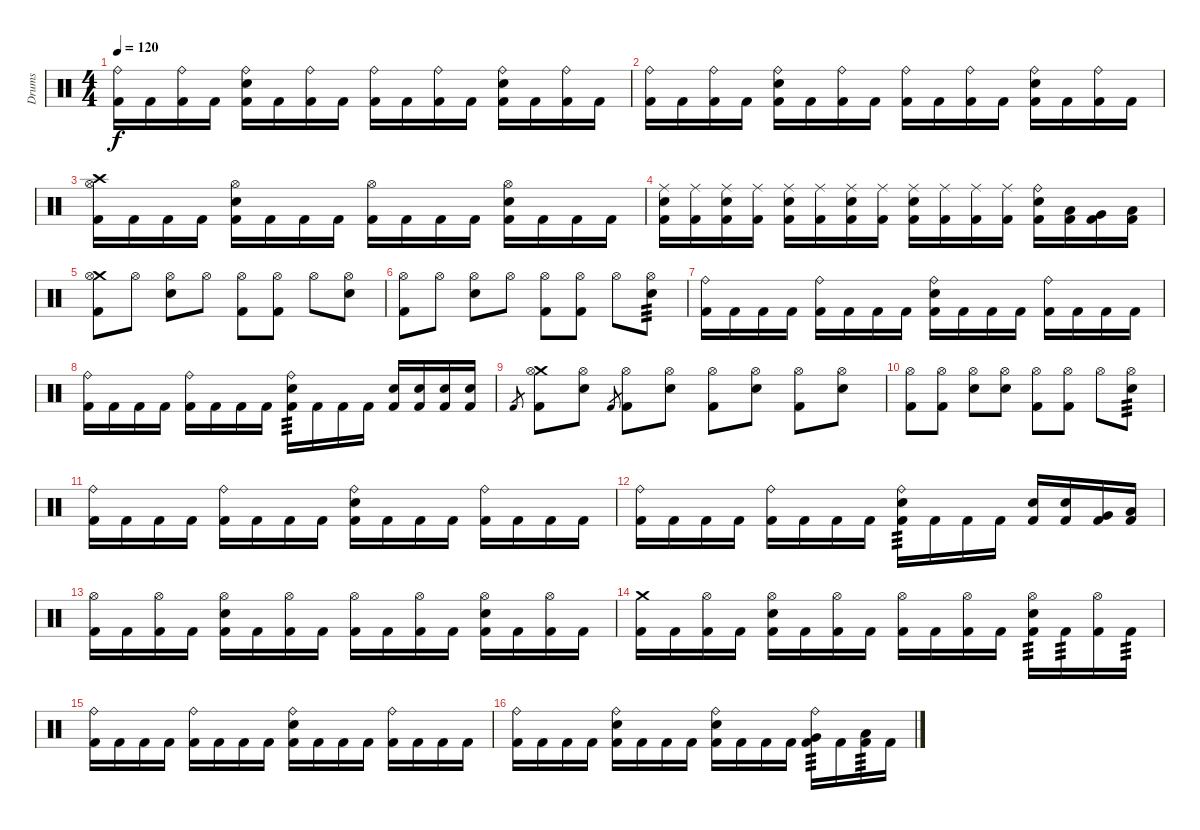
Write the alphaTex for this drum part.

\track ("Drums" "Drums") {instrument percussion}
\staff {score}
\articulation defaults
\ts (4 4)
\tempo 120
\clef neutral
\ks c
("Ride (bell)" "Kick (hit) 2").16{dy f} "Kick (hit) 2".16 ("Ride (bell)" "Kick (hit) 2").16 "Kick (hit) 2".16 ("Electric Snare (hit)" "Ride (bell)" "Kick (hit) 2").16 "Kick (hit) 2".16 ("Ride (bell)" "Kick (hit) 2").16 "Kick (hit) 2".16 ("Ride (bell)" "Kick (hit) 2").16 "Kick (hit) 2".16 ("Ride (bell)" "Kick (hit) 2").16 "Kick (hit) 2".16 ("Electric Snare (hit)" "Ride (bell)" "Kick (hit) 2").16 "Kick (hit) 2".16 ("Ride (bell)" "Kick (hit) 2").16 "Kick (hit) 2".16 |
("Ride (bell)" "Kick (hit) 2").16 "Kick (hit) 2".16 ("Ride (bell)" "Kick (hit) 2").16 "Kick (hit) 2".16 ("Electric Snare (hit)" "Ride (bell)" "Kick (hit) 2").16 "Kick (hit) 2".16 ("Ride (bell)" "Kick (hit) 2").16 "Kick (hit) 2".16 ("Ride (bell)" "Kick (hit) 2").16 "Kick (hit) 2".16 ("Ride (bell)" "Kick (hit) 2").16 "Kick (hit) 2".16 ("Electric Snare (hit)" "Ride (bell)" "Kick (hit) 2").16 "Kick (hit) 2".16 ("Ride (bell)" "Kick (hit) 2").16 "Kick (hit) 2".16 |
("Crash high (hit)" "Hi-Hat (open)" "Kick (hit) 2").16 "Kick (hit) 2".16 "Kick (hit) 2".16 "Kick (hit) 2".16 ("Electric Snare (hit)" "Hi-Hat (open)" "Kick (hit) 2").16 "Kick (hit) 2".16 "Kick (hit) 2".16 "Kick (hit) 2".16 ("Hi-Hat (open)" "Kick (hit) 2").16 "Kick (hit) 2".16 "Kick (hit) 2".16 "Kick (hit) 2".16 ("Hi-Hat (open)" "Electric Snare (hit)" "Kick (hit) 2").16 "Kick (hit) 2".16 "Kick (hit) 2".16 "Kick (hit) 2".16 |
("Electric Snare (hit)" "Ride (middle)" "Kick (hit) 2").16 ("Ride (middle)" "Kick (hit) 2").16 ("Electric Snare (hit)" "Ride (middle)" "Kick (hit) 2").16 ("Ride (middle)" "Kick (hit) 2").16 ("Electric Snare (hit)" "Ride (middle)" "Kick (hit) 2").16 ("Ride (middle)" "Kick (hit) 2").16 ("Electric Snare (hit)" "Ride (middle)" "Kick (hit) 2").16 ("Ride (middle)" "Kick (hit) 2").16 ("Electric Snare (hit)" "Ride (middle)" "Kick (hit) 2").16 ("Ride (middle)" "Kick (hit) 2").16 ("Ride (middle)" "Kick (hit) 2").16 ("Ride (middle)" "Kick (hit) 2").16 ("Ride (bell)" "Electric Snare (hit)" "Kick (hit) 2").16 ("Low Tom (hit)" "Kick (hit) 2").16 ("Very Low Tom (hit)" "Kick (hit) 2").16 ("Low Floor Tom (hit)" "Kick (hit) 2").16 |
("Crash medium (hit)" "Hi-Hat (open)" "Kick (hit) 2").8 "Hi-Hat (open)".8 ("Hi-Hat (open)" "Electric Snare (hit)").8 "Hi-Hat (open)".8 ("Hi-Hat (open)" "Kick (hit) 2").8 ("Hi-Hat (open)" "Kick (hit) 2").8 "Hi-Hat (open)".8 ("Hi-Hat (open)" "Electric Snare (hit)").8 |
("Hi-Hat (open)" "Kick (hit) 2").8 "Hi-Hat (open)".8 ("Hi-Hat (open)" "Electric Snare (hit)").8 "Hi-Hat (open)".8 ("Hi-Hat (open)" "Kick (hit) 2").8 ("Hi-Hat (open)" "Kick (hit) 2").8 "Hi-Hat (open)".8 ("Hi-Hat (open)" "Electric Snare (hit)").8{tp 3} |
("Ride (bell)" "Kick (hit) 2").16 "Kick (hit) 2".16 "Kick (hit) 2".16 "Kick (hit) 2".16 ("Ride (bell)" "Kick (hit) 2").16 "Kick (hit) 2".16 "Kick (hit) 2".16 "Kick (hit) 2".16 ("Ride (bell)" "Electric Snare (hit)" "Kick (hit) 2").16 "Kick (hit) 2".16 "Kick (hit) 2".16 "Kick (hit) 2".16 ("Ride (bell)" "Kick (hit) 2").16 "Kick (hit) 2".16 "Kick (hit) 2".16 "Kick (hit) 2".16 |
("Ride (bell)" "Kick (hit) 2").16 "Kick (hit) 2".16 "Kick (hit) 2".16 "Kick (hit) 2".16 ("Ride (bell)" "Kick (hit) 2").16 "Kick (hit) 2".16 "Kick (hit) 2".16 "Kick (hit) 2".16 ("Ride (bell)" "Electric Snare (hit)" "Kick (hit) 2").16{tp 3} "Kick (hit) 2".16 "Kick (hit) 2".16 "Kick (hit) 2".16 ("Electric Snare (hit)" "Kick (hit) 2").16 ("Electric Snare (hit)" "Kick (hit) 2").16 ("Electric Snare (hit)" "Kick (hit) 2").16 ("Electric Snare (hit)" "Kick (hit) 2").16 |
"Kick (hit) 2".8{gr} ("Crash medium (hit)" "Hi-Hat (open)" "Kick (hit) 2").8 ("Hi-Hat (open)" "Electric Snare (hit)").8 "Kick (hit) 2".8{gr} ("Hi-Hat (open)" "Kick (hit) 2").8 ("Hi-Hat (open)" "Electric Snare (hit)").8 ("Hi-Hat (open)" "Kick (hit) 2").8 ("Hi-Hat (open)" "Electric Snare (hit)").8 ("Hi-Hat (open)" "Kick (hit) 2").8 ("Hi-Hat (open)" "Electric Snare (hit)").8 |
("Hi-Hat (open)" "Kick (hit) 2").8 ("Hi-Hat (open)" "Kick (hit) 2").8 ("Hi-Hat (open)" "Electric Snare (hit)").8 ("Hi-Hat (open)" "Electric Snare (hit)").8 ("Hi-Hat (open)" "Kick (hit) 2").8 ("Hi-Hat (open)" "Kick (hit) 2").8 "Hi-Hat (open)".8 ("Hi-Hat (open)" "Electric Snare (hit)").8{tp 3} |
("Ride (bell)" "Kick (hit) 2").16 "Kick (hit) 2".16 "Kick (hit) 2".16 "Kick (hit) 2".16 ("Ride (bell)" "Kick (hit) 2").16 "Kick (hit) 2".16 "Kick (hit) 2".16 "Kick (hit) 2".16 ("Ride (bell)" "Electric Snare (hit)" "Kick (hit) 2").16 "Kick (hit) 2".16 "Kick (hit) 2".16 "Kick (hit) 2".16 ("Ride (bell)" "Kick (hit) 2").16 "Kick (hit) 2".16 "Kick (hit) 2".16 "Kick (hit) 2".16 |
("Ride (bell)" "Kick (hit) 2").16 "Kick (hit) 2".16 "Kick (hit) 2".16 "Kick (hit) 2".16 ("Ride (bell)" "Kick (hit) 2").16 "Kick (hit) 2".16 "Kick (hit) 2".16 "Kick (hit) 2".16 ("Ride (bell)" "Electric Snare (hit)" "Kick (hit) 2").16{tp 3} "Kick (hit) 2".16 "Kick (hit) 2".16 "Kick (hit) 2".16 ("Electric Snare (hit)" "Kick (hit) 2").16 ("Electric Snare (hit)" "Kick (hit) 2").16 ("Very Low Tom (hit)" "Kick (hit) 2").16 ("Low Floor Tom (hit)" "Kick (hit) 2").16 |
("Hi-Hat (open)" "Kick (hit) 2").16 "Kick (hit) 2".16 ("Hi-Hat (open)" "Kick (hit) 2").16 "Kick (hit) 2".16 ("Electric Snare (hit)" "Hi-Hat (open)" "Kick (hit) 2").16 "Kick (hit) 2".16 ("Hi-Hat (open)" "Kick (hit) 2").16 "Kick (hit) 2".16 ("Hi-Hat (open)" "Kick (hit) 2").16 "Kick (hit) 2".16 ("Hi-Hat (open)" "Kick (hit) 2").16 "Kick (hit) 2".16 ("Electric Snare (hit)" "Hi-Hat (open)" "Kick (hit) 2").16 "Kick (hit) 2".16 ("Hi-Hat (open)" "Kick (hit) 2").16 "Kick (hit) 2".16 |
("Crash medium (hit)" "Kick (hit) 2").16 "Kick (hit) 2".16 ("Hi-Hat (open)" "Kick (hit) 2").16 "Kick (hit) 2".16 ("Electric Snare (hit)" "Hi-Hat (open)" "Kick (hit) 2").16 "Kick (hit) 2".16 ("Hi-Hat (open)" "Kick (hit) 2").16 "Kick (hit) 2".16 ("Hi-Hat (open)" "Kick (hit) 2").16 "Kick (hit) 2".16 ("Hi-Hat (open)" "Kick (hit) 2").16 "Kick (hit) 2".16 ("Electric Snare (hit)" "Hi-Hat (open)" "Kick (hit) 2").16{tp 3} "Kick (hit) 2".16{tp 3} ("Hi-Hat (open)" "Kick (hit) 2").16 "Kick (hit) 2".16{tp 3} |
("Ride (bell)" "Kick (hit) 2").16 "Kick (hit) 2".16 "Kick (hit) 2".16 "Kick (hit) 2".16 ("Ride (bell)" "Kick (hit) 2").16 "Kick (hit) 2".16 "Kick (hit) 2".16 "Kick (hit) 2".16 ("Ride (bell)" "Electric Snare (hit)" "Kick (hit) 2").16 "Kick (hit) 2".16 "Kick (hit) 2".16 "Kick (hit) 2".16 ("Ride (bell)" "Kick (hit) 2").16 "Kick (hit) 2".16 "Kick (hit) 2".16 "Kick (hit) 2".16 |
("Ride (bell)" "Kick (hit) 2").16 "Kick (hit) 2".16 "Kick (hit) 2".16 "Kick (hit) 2".16 ("Ride (bell)" "Electric Snare (hit)" "Kick (hit) 2").16 "Kick (hit) 2".16 "Kick (hit) 2".16 "Kick (hit) 2".16 ("Ride (bell)" "Electric Snare (hit)" "Kick (hit) 2").16 "Kick (hit) 2".16 "Kick (hit) 2".16 "Kick (hit) 2".16 ("Ride (bell)" "Very Low Tom (hit)" "Kick (hit) 2").16{tp 3} "Kick (hit) 2".16 ("Low Floor Tom (hit)" "Kick (hit) 2").16{tp 3} "Kick (hit) 2".16
